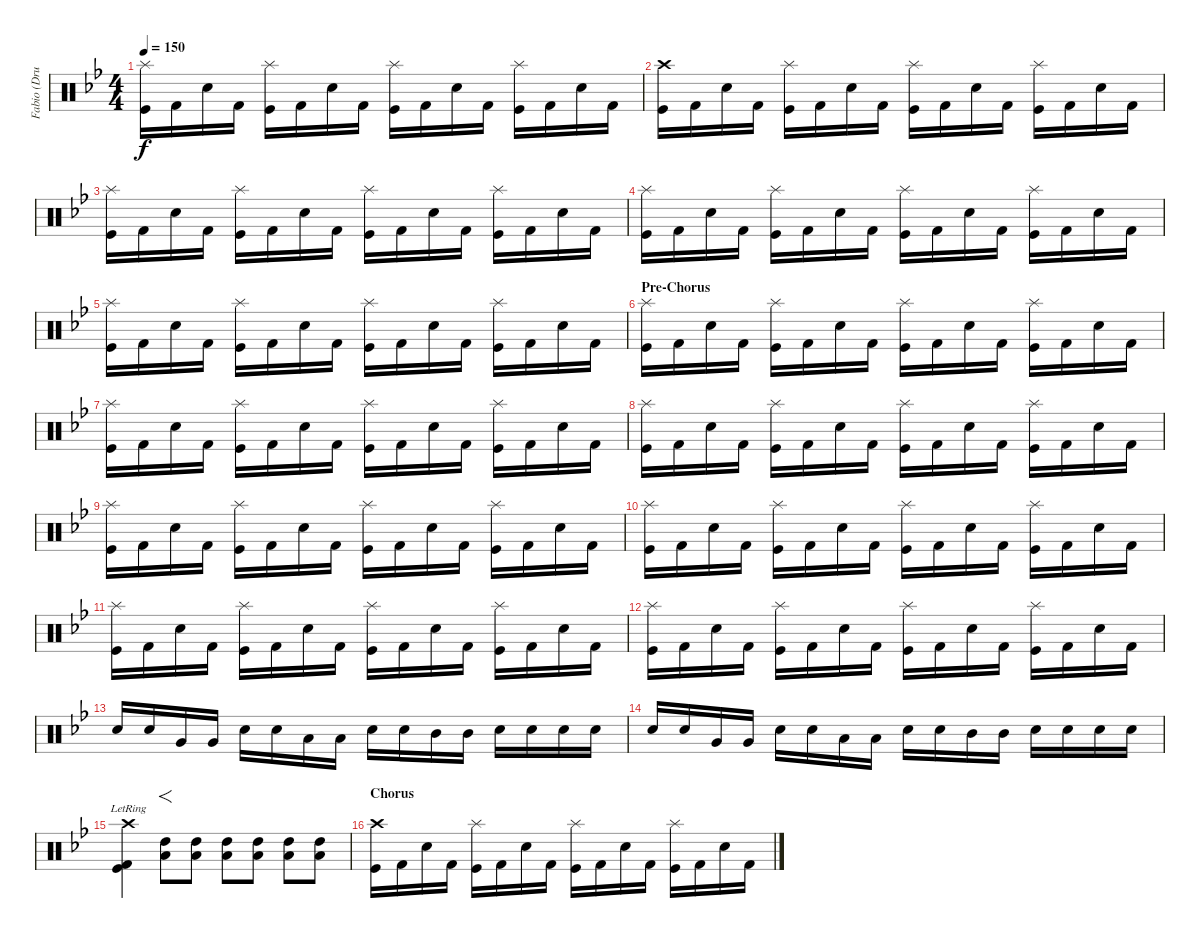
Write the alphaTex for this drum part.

\track ("Fabio (Drums)" "Fabio (Dru") {instrument percussion}
\staff {score}
\articulation defaults
\ts (4 4)
\tempo 150
\clef neutral
\ks gminor
("Splash (hit)" "Kick (hit)").16{dy f} "Kick (hit) 2".16 "Snare (hit) 2".16 "Kick (hit) 2".16 ("Splash (hit)" "Kick (hit)").16 "Kick (hit) 2".16 "Snare (hit) 2".16 "Kick (hit) 2".16 ("Splash (hit)" "Kick (hit)").16 "Kick (hit) 2".16 "Snare (hit) 2".16 "Kick (hit) 2".16 ("Splash (hit)" "Kick (hit)").16 "Kick (hit) 2".16 "Snare (hit) 2".16 "Kick (hit) 2".16 |
("Crash high (hit)" "Kick (hit)").16 "Kick (hit) 2".16 "Snare (hit) 2".16 "Kick (hit) 2".16 ("Splash (hit)" "Kick (hit)").16 "Kick (hit) 2".16 "Snare (hit) 2".16 "Kick (hit) 2".16 ("Splash (hit)" "Kick (hit)").16 "Kick (hit) 2".16 "Snare (hit) 2".16 "Kick (hit) 2".16 ("Splash (hit)" "Kick (hit)").16 "Kick (hit) 2".16 "Snare (hit) 2".16 "Kick (hit) 2".16 |
("Splash (hit)" "Kick (hit)").16 "Kick (hit) 2".16 "Snare (hit) 2".16 "Kick (hit) 2".16 ("Splash (hit)" "Kick (hit)").16 "Kick (hit) 2".16 "Snare (hit) 2".16 "Kick (hit) 2".16 ("Splash (hit)" "Kick (hit)").16 "Kick (hit) 2".16 "Snare (hit) 2".16 "Kick (hit) 2".16 ("Splash (hit)" "Kick (hit)").16 "Kick (hit) 2".16 "Snare (hit) 2".16 "Kick (hit) 2".16 |
("Splash (hit)" "Kick (hit)").16 "Kick (hit) 2".16 "Snare (hit) 2".16 "Kick (hit) 2".16 ("Splash (hit)" "Kick (hit)").16 "Kick (hit) 2".16 "Snare (hit) 2".16 "Kick (hit) 2".16 ("Splash (hit)" "Kick (hit)").16 "Kick (hit) 2".16 "Snare (hit) 2".16 "Kick (hit) 2".16 ("Splash (hit)" "Kick (hit)").16 "Kick (hit) 2".16 "Snare (hit) 2".16 "Kick (hit) 2".16 |
("Splash (hit)" "Kick (hit)").16 "Kick (hit) 2".16 "Snare (hit) 2".16 "Kick (hit) 2".16 ("Splash (hit)" "Kick (hit)").16 "Kick (hit) 2".16 "Snare (hit) 2".16 "Kick (hit) 2".16 ("Splash (hit)" "Kick (hit)").16 "Kick (hit) 2".16 "Snare (hit) 2".16 "Kick (hit) 2".16 ("Splash (hit)" "Kick (hit)").16 "Kick (hit) 2".16 "Snare (hit) 2".16 "Kick (hit) 2".16 |
\section ("" "Pre-Chorus")
("Splash (hit)" "Kick (hit)").16 "Kick (hit) 2".16 "Snare (hit) 2".16 "Kick (hit) 2".16 ("Splash (hit)" "Kick (hit)").16 "Kick (hit) 2".16 "Snare (hit) 2".16 "Kick (hit) 2".16 ("Splash (hit)" "Kick (hit)").16 "Kick (hit) 2".16 "Snare (hit) 2".16 "Kick (hit) 2".16 ("Splash (hit)" "Kick (hit)").16 "Kick (hit) 2".16 "Snare (hit) 2".16 "Kick (hit) 2".16 |
("Splash (hit)" "Kick (hit)").16 "Kick (hit) 2".16 "Snare (hit) 2".16 "Kick (hit) 2".16 ("Splash (hit)" "Kick (hit)").16 "Kick (hit) 2".16 "Snare (hit) 2".16 "Kick (hit) 2".16 ("Splash (hit)" "Kick (hit)").16 "Kick (hit) 2".16 "Snare (hit) 2".16 "Kick (hit) 2".16 ("Splash (hit)" "Kick (hit)").16 "Kick (hit) 2".16 "Snare (hit) 2".16 "Kick (hit) 2".16 |
("Splash (hit)" "Kick (hit)").16 "Kick (hit) 2".16 "Snare (hit) 2".16 "Kick (hit) 2".16 ("Splash (hit)" "Kick (hit)").16 "Kick (hit) 2".16 "Snare (hit) 2".16 "Kick (hit) 2".16 ("Splash (hit)" "Kick (hit)").16 "Kick (hit) 2".16 "Snare (hit) 2".16 "Kick (hit) 2".16 ("Splash (hit)" "Kick (hit)").16 "Kick (hit) 2".16 "Snare (hit) 2".16 "Kick (hit) 2".16 |
("Splash (hit)" "Kick (hit)").16 "Kick (hit) 2".16 "Snare (hit) 2".16 "Kick (hit) 2".16 ("Splash (hit)" "Kick (hit)").16 "Kick (hit) 2".16 "Snare (hit) 2".16 "Kick (hit) 2".16 ("Splash (hit)" "Kick (hit)").16 "Kick (hit) 2".16 "Snare (hit) 2".16 "Kick (hit) 2".16 ("Splash (hit)" "Kick (hit)").16 "Kick (hit) 2".16 "Snare (hit) 2".16 "Kick (hit) 2".16 |
("Splash (hit)" "Kick (hit)").16 "Kick (hit) 2".16 "Snare (hit) 2".16 "Kick (hit) 2".16 ("Splash (hit)" "Kick (hit)").16 "Kick (hit) 2".16 "Snare (hit) 2".16 "Kick (hit) 2".16 ("Splash (hit)" "Kick (hit)").16 "Kick (hit) 2".16 "Snare (hit) 2".16 "Kick (hit) 2".16 ("Splash (hit)" "Kick (hit)").16 "Kick (hit) 2".16 "Snare (hit) 2".16 "Kick (hit) 2".16 |
("Splash (hit)" "Kick (hit)").16 "Kick (hit) 2".16 "Snare (hit) 2".16 "Kick (hit) 2".16 ("Splash (hit)" "Kick (hit)").16 "Kick (hit) 2".16 "Snare (hit) 2".16 "Kick (hit) 2".16 ("Splash (hit)" "Kick (hit)").16 "Kick (hit) 2".16 "Snare (hit) 2".16 "Kick (hit) 2".16 ("Splash (hit)" "Kick (hit)").16 "Kick (hit) 2".16 "Snare (hit) 2".16 "Kick (hit) 2".16 |
("Splash (hit)" "Kick (hit)").16 "Kick (hit) 2".16 "Snare (hit) 2".16 "Kick (hit) 2".16 ("Splash (hit)" "Kick (hit)").16 "Kick (hit) 2".16 "Snare (hit) 2".16 "Kick (hit) 2".16 ("Splash (hit)" "Kick (hit)").16 "Kick (hit) 2".16 "Snare (hit) 2".16 "Kick (hit) 2".16 ("Splash (hit)" "Kick (hit)").16 "Kick (hit) 2".16 "Snare (hit) 2".16 "Kick (hit) 2".16 |
"Snare (hit) 2".16 "Snare (hit) 2".16 "Very Low Tom (hit)".16 "Very Low Tom (hit)".16 "Snare (hit) 2".16 "Snare (hit) 2".16 "Low Tom (hit)".16 "Low Tom (hit)".16 "Snare (hit) 2".16 "Snare (hit) 2".16 "Mid Tom (hit)".16 "Mid Tom (hit)".16 "Snare (hit) 2".16 "Snare (hit) 2".16 "Snare (hit) 2".16 "Snare (hit) 2".16 |
"Snare (hit) 2".16 "Snare (hit) 2".16 "Very Low Tom (hit)".16 "Very Low Tom (hit)".16 "Snare (hit) 2".16 "Snare (hit) 2".16 "Low Tom (hit)".16 "Low Tom (hit)".16 "Snare (hit) 2".16 "Snare (hit) 2".16 "Mid Tom (hit)".16 "Mid Tom (hit)".16 "Snare (hit) 2".16 "Snare (hit) 2".16 "Snare (hit) 2".16 "Snare (hit) 2".16 |
("Crash high (hit)"{lr} "Kick (hit)" "Kick (hit) 2").4 ("Low Tom (hit)" "High Tom (hit)").8{f} ("Low Tom (hit)" "High Tom (hit)").8 ("Low Tom (hit)" "High Tom (hit)").8 ("Low Tom (hit)" "High Tom (hit)").8 ("Low Tom (hit)" "High Tom (hit)").8 ("Low Tom (hit)" "High Tom (hit)").8 |
\section ("" "Chorus")
("Crash high (hit)" "Kick (hit)").16 "Kick (hit) 2".16 "Snare (hit) 2".16 "Kick (hit) 2".16 ("Splash (hit)" "Kick (hit)").16 "Kick (hit) 2".16 "Snare (hit) 2".16 "Kick (hit) 2".16 ("Splash (hit)" "Kick (hit)").16 "Kick (hit) 2".16 "Snare (hit) 2".16 "Kick (hit) 2".16 ("Splash (hit)" "Kick (hit)").16 "Kick (hit) 2".16 "Snare (hit) 2".16 "Kick (hit) 2".16
